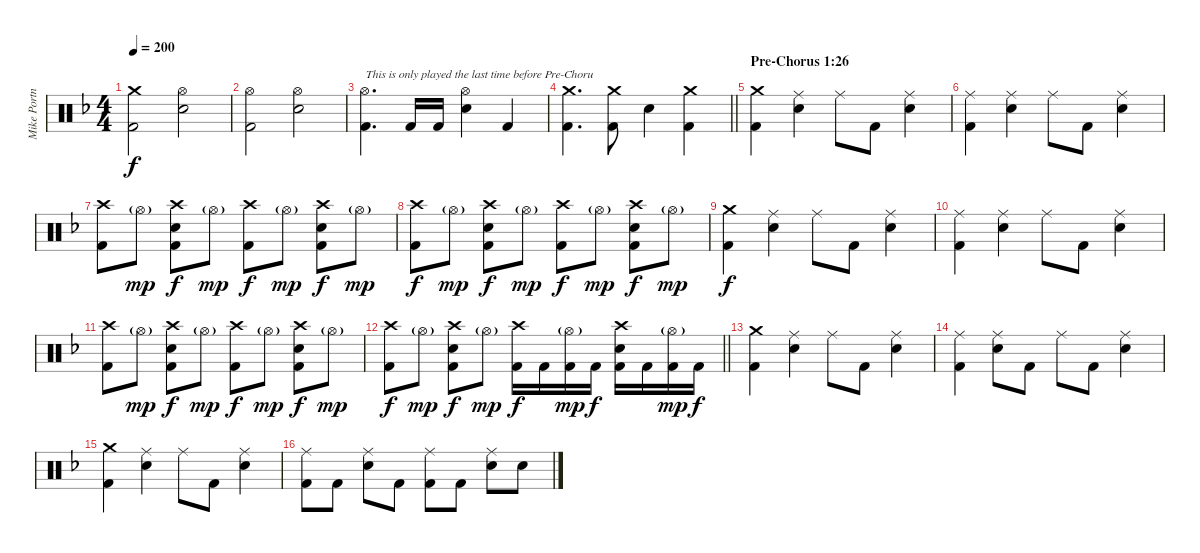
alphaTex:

\track ("Mike Portnoy (Drums)" "Mike Portn") {instrument percussion}
\staff {score}
\articulation defaults
\ts (4 4)
\tempo 200
\clef neutral
\ks f
("Crash medium (hit)" "Kick (hit) 2").2{dy f} ("Hi-Hat (open)" "Electric Snare (hit)").2 |
("Hi-Hat (open)" "Kick (hit) 2").2 ("Hi-Hat (open)" "Electric Snare (hit)").2 |
("Hi-Hat (open)" "Kick (hit) 2").4{d txt "This is only played the last time before Pre-Choru"} "Kick (hit) 2".16 "Kick (hit) 2".16 ("Hi-Hat (open)" "Electric Snare (hit)").4 "Kick (hit) 2".4 |
\barLineRight lightlight
("Crash medium (hit)" "Kick (hit) 2").4{d} ("Crash medium (hit)" "Kick (hit) 2").8 "Electric Snare (hit)".4 ("Crash medium (hit)" "Kick (hit) 2").4 |
\section ("" "Pre-Chorus 1:26")
("Crash medium (hit)" "Kick (hit) 2").4 ("Ride (middle)" "Electric Snare (hit)").4 "Ride (middle)".8 "Kick (hit) 2".8 ("Ride (middle)" "Electric Snare (hit)").4 |
("Ride (middle)" "Kick (hit) 2").4 ("Ride (middle)" "Electric Snare (hit)").4 "Ride (middle)".8 "Kick (hit) 2".8 ("Ride (middle)" "Electric Snare (hit)").4 |
("Crash high (hit)" "Kick (hit) 2").8 "Hi-Hat (open)"{g}.8{dy mp} ("Crash high (hit)" "Electric Snare (hit)" "Kick (hit) 2").8{dy f} "Hi-Hat (open)"{g}.8{dy mp} ("Crash high (hit)" "Kick (hit) 2").8{dy f} "Hi-Hat (open)"{g}.8{dy mp} ("Crash high (hit)" "Electric Snare (hit)" "Kick (hit) 2").8{dy f} "Hi-Hat (open)"{g}.8{dy mp} |
("Crash high (hit)" "Kick (hit) 2").8{dy f} "Hi-Hat (open)"{g}.8{dy mp} ("Crash high (hit)" "Electric Snare (hit)" "Kick (hit) 2").8{dy f} "Hi-Hat (open)"{g}.8{dy mp} ("Crash high (hit)" "Kick (hit) 2").8{dy f} "Hi-Hat (open)"{g}.8{dy mp} ("Crash high (hit)" "Electric Snare (hit)" "Kick (hit) 2").8{dy f} "Hi-Hat (open)"{g}.8{dy mp} |
("Crash medium (hit)" "Kick (hit) 2").4{dy f} ("Ride (middle)" "Electric Snare (hit)").4 "Ride (middle)".8 "Kick (hit) 2".8 ("Ride (middle)" "Electric Snare (hit)").4 |
("Ride (middle)" "Kick (hit) 2").4 ("Ride (middle)" "Electric Snare (hit)").4 "Ride (middle)".8 "Kick (hit) 2".8 ("Ride (middle)" "Electric Snare (hit)").4 |
("Crash high (hit)" "Kick (hit) 2").8 "Hi-Hat (open)"{g}.8{dy mp} ("Crash high (hit)" "Electric Snare (hit)" "Kick (hit) 2").8{dy f} "Hi-Hat (open)"{g}.8{dy mp} ("Crash high (hit)" "Kick (hit) 2").8{dy f} "Hi-Hat (open)"{g}.8{dy mp} ("Crash high (hit)" "Electric Snare (hit)" "Kick (hit) 2").8{dy f} "Hi-Hat (open)"{g}.8{dy mp} |
\barLineRight lightlight
("Crash high (hit)" "Kick (hit) 2").8{dy f} "Hi-Hat (open)"{g}.8{dy mp} ("Crash high (hit)" "Electric Snare (hit)" "Kick (hit) 2").8{dy f} "Hi-Hat (open)"{g}.8{dy mp} ("Crash high (hit)" "Kick (hit) 2").16{dy f} "Kick (hit) 2".16 ("Hi-Hat (open)"{g} "Kick (hit) 2").16{dy mp} "Kick (hit) 2".16{dy f} ("Crash high (hit)" "Electric Snare (hit)" "Kick (hit) 2").16 "Kick (hit) 2".16 ("Hi-Hat (open)"{g} "Kick (hit) 2").16{dy mp} "Kick (hit) 2".16{dy f} |
\section ("" "")
("Crash medium (hit)" "Kick (hit) 2").4 ("Ride (middle)" "Electric Snare (hit)").4 "Ride (middle)".8 "Kick (hit) 2".8 ("Ride (middle)" "Electric Snare (hit)").4 |
("Ride (middle)" "Kick (hit) 2").4 ("Ride (middle)" "Electric Snare (hit)").8 "Kick (hit) 2".8 "Ride (middle)".8 "Kick (hit) 2".8 ("Ride (middle)" "Electric Snare (hit)").4 |
("Crash medium (hit)" "Kick (hit) 2").4 ("Ride (middle)" "Electric Snare (hit)").4 "Ride (middle)".8 "Kick (hit) 2".8 ("Ride (middle)" "Electric Snare (hit)").4 |
("Ride (middle)" "Kick (hit) 2").8 "Kick (hit) 2".8 ("Ride (middle)" "Electric Snare (hit)").8 "Kick (hit) 2".8 ("Ride (middle)" "Kick (hit) 2").8 "Kick (hit) 2".8 ("Ride (middle)" "Electric Snare (hit)").8 "Electric Snare (hit)".8
